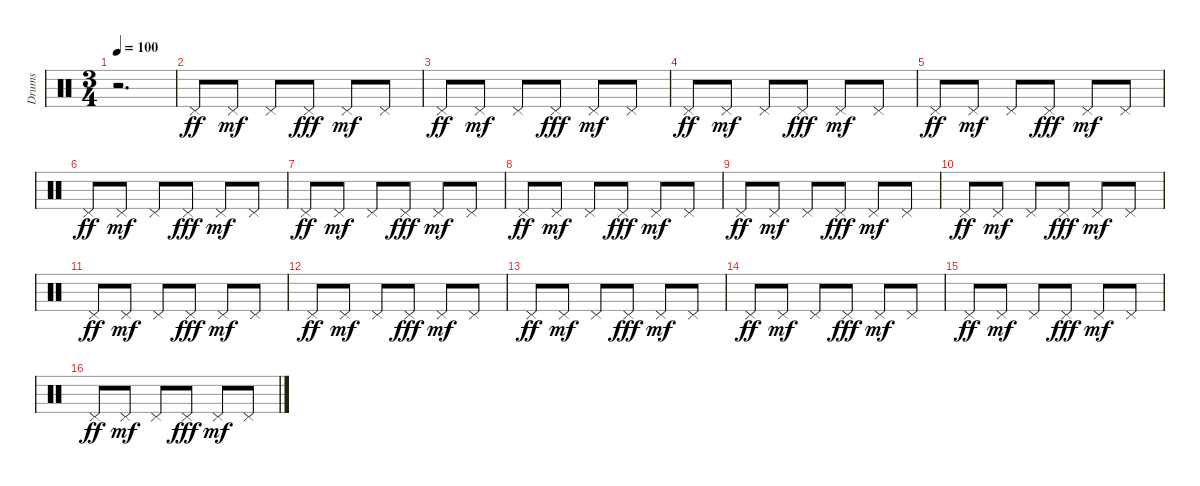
\track ("Drums" "Drums") {instrument percussion}
\staff {score}
\articulation defaults
\ts (3 4)
\tempo 100
\clef neutral
\ks c
r.2{d dy ff} |
"Pedal Hi-Hat (hit)".8 "Pedal Hi-Hat (hit)".8{dy mf} "Pedal Hi-Hat (hit)".8 "Pedal Hi-Hat (hit)".8{dy fff} "Pedal Hi-Hat (hit)".8{dy mf} "Pedal Hi-Hat (hit)".8 |
"Pedal Hi-Hat (hit)".8{dy ff} "Pedal Hi-Hat (hit)".8{dy mf} "Pedal Hi-Hat (hit)".8 "Pedal Hi-Hat (hit)".8{dy fff} "Pedal Hi-Hat (hit)".8{dy mf} "Pedal Hi-Hat (hit)".8 |
"Pedal Hi-Hat (hit)".8{dy ff} "Pedal Hi-Hat (hit)".8{dy mf} "Pedal Hi-Hat (hit)".8 "Pedal Hi-Hat (hit)".8{dy fff} "Pedal Hi-Hat (hit)".8{dy mf} "Pedal Hi-Hat (hit)".8 |
"Pedal Hi-Hat (hit)".8{dy ff} "Pedal Hi-Hat (hit)".8{dy mf} "Pedal Hi-Hat (hit)".8 "Pedal Hi-Hat (hit)".8{dy fff} "Pedal Hi-Hat (hit)".8{dy mf} "Pedal Hi-Hat (hit)".8 |
"Pedal Hi-Hat (hit)".8{dy ff} "Pedal Hi-Hat (hit)".8{dy mf} "Pedal Hi-Hat (hit)".8 "Pedal Hi-Hat (hit)".8{dy fff} "Pedal Hi-Hat (hit)".8{dy mf} "Pedal Hi-Hat (hit)".8 |
"Pedal Hi-Hat (hit)".8{dy ff} "Pedal Hi-Hat (hit)".8{dy mf} "Pedal Hi-Hat (hit)".8 "Pedal Hi-Hat (hit)".8{dy fff} "Pedal Hi-Hat (hit)".8{dy mf} "Pedal Hi-Hat (hit)".8 |
"Pedal Hi-Hat (hit)".8{dy ff} "Pedal Hi-Hat (hit)".8{dy mf} "Pedal Hi-Hat (hit)".8 "Pedal Hi-Hat (hit)".8{dy fff} "Pedal Hi-Hat (hit)".8{dy mf} "Pedal Hi-Hat (hit)".8 |
"Pedal Hi-Hat (hit)".8{dy ff} "Pedal Hi-Hat (hit)".8{dy mf} "Pedal Hi-Hat (hit)".8 "Pedal Hi-Hat (hit)".8{dy fff} "Pedal Hi-Hat (hit)".8{dy mf} "Pedal Hi-Hat (hit)".8 |
"Pedal Hi-Hat (hit)".8{dy ff} "Pedal Hi-Hat (hit)".8{dy mf} "Pedal Hi-Hat (hit)".8 "Pedal Hi-Hat (hit)".8{dy fff} "Pedal Hi-Hat (hit)".8{dy mf} "Pedal Hi-Hat (hit)".8 |
"Pedal Hi-Hat (hit)".8{dy ff} "Pedal Hi-Hat (hit)".8{dy mf} "Pedal Hi-Hat (hit)".8 "Pedal Hi-Hat (hit)".8{dy fff} "Pedal Hi-Hat (hit)".8{dy mf} "Pedal Hi-Hat (hit)".8 |
"Pedal Hi-Hat (hit)".8{dy ff} "Pedal Hi-Hat (hit)".8{dy mf} "Pedal Hi-Hat (hit)".8 "Pedal Hi-Hat (hit)".8{dy fff} "Pedal Hi-Hat (hit)".8{dy mf} "Pedal Hi-Hat (hit)".8 |
"Pedal Hi-Hat (hit)".8{dy ff} "Pedal Hi-Hat (hit)".8{dy mf} "Pedal Hi-Hat (hit)".8 "Pedal Hi-Hat (hit)".8{dy fff} "Pedal Hi-Hat (hit)".8{dy mf} "Pedal Hi-Hat (hit)".8 |
"Pedal Hi-Hat (hit)".8{dy ff} "Pedal Hi-Hat (hit)".8{dy mf} "Pedal Hi-Hat (hit)".8 "Pedal Hi-Hat (hit)".8{dy fff} "Pedal Hi-Hat (hit)".8{dy mf} "Pedal Hi-Hat (hit)".8 |
"Pedal Hi-Hat (hit)".8{dy ff} "Pedal Hi-Hat (hit)".8{dy mf} "Pedal Hi-Hat (hit)".8 "Pedal Hi-Hat (hit)".8{dy fff} "Pedal Hi-Hat (hit)".8{dy mf} "Pedal Hi-Hat (hit)".8 |
"Pedal Hi-Hat (hit)".8{dy ff} "Pedal Hi-Hat (hit)".8{dy mf} "Pedal Hi-Hat (hit)".8 "Pedal Hi-Hat (hit)".8{dy fff} "Pedal Hi-Hat (hit)".8{dy mf} "Pedal Hi-Hat (hit)".8
